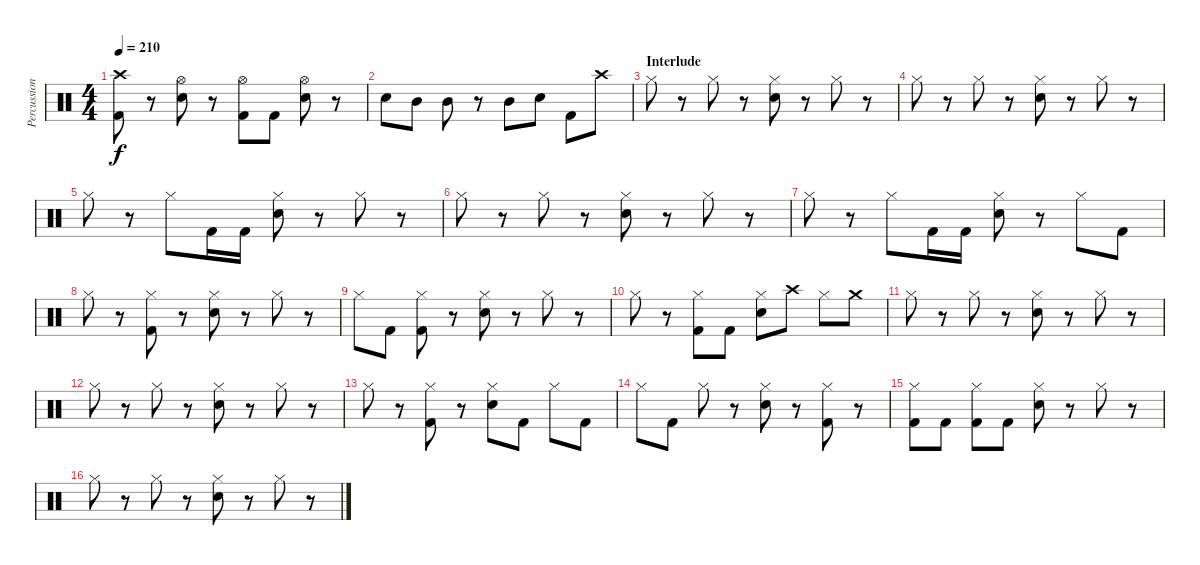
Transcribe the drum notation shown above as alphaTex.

\track ("Percussion" "Percussion") {instrument percussion}
\staff {score}
\articulation defaults
\ts (4 4)
\tempo 210
\clef neutral
\ks c
("Crash high (hit)" "Kick (hit) 2").8{dy f} r.8 ("Hi-Hat (open)" "Electric Snare (hit)").8 r.8 ("Hi-Hat (open)" "Kick (hit) 2").8 "Kick (hit) 2".8 ("Hi-Hat (open)" "Electric Snare (hit)").8 r.8 |
"Electric Snare (hit)".8 "Mid Tom (hit)".8 "Mid Tom (hit)".8 r.8 "Mid Tom (hit)".8 "Electric Snare (hit)".8 "Kick (hit) 2".8 "Crash high (hit)".8 |
\section ("" "Interlude")
"Hi-Hat (closed)".8 r.8 "Hi-Hat (closed)".8 r.8 ("Hi-Hat (closed)" "Electric Snare (hit)").8 r.8 "Hi-Hat (closed)".8 r.8 |
"Hi-Hat (closed)".8 r.8 "Hi-Hat (closed)".8 r.8 ("Hi-Hat (closed)" "Electric Snare (hit)").8 r.8 "Hi-Hat (closed)".8 r.8 |
"Hi-Hat (closed)".8 r.8 "Hi-Hat (closed)".8 "Kick (hit) 2".16 "Kick (hit) 2".16 ("Hi-Hat (closed)" "Electric Snare (hit)").8 r.8 "Hi-Hat (closed)".8 r.8 |
"Hi-Hat (closed)".8 r.8 "Hi-Hat (closed)".8 r.8 ("Hi-Hat (closed)" "Electric Snare (hit)").8 r.8 "Hi-Hat (closed)".8 r.8 |
"Hi-Hat (closed)".8 r.8 "Hi-Hat (closed)".8 "Kick (hit) 2".16 "Kick (hit) 2".16 ("Hi-Hat (closed)" "Electric Snare (hit)").8 r.8 "Hi-Hat (closed)".8 "Kick (hit) 2".8 |
"Hi-Hat (closed)".8 r.8 ("Hi-Hat (closed)" "Kick (hit) 2").8 r.8 ("Hi-Hat (closed)" "Electric Snare (hit)").8 r.8 "Hi-Hat (closed)".8 r.8 |
"Hi-Hat (closed)".8 "Kick (hit) 2".8 ("Hi-Hat (closed)" "Kick (hit) 2").8 r.8 ("Hi-Hat (closed)" "Electric Snare (hit)").8 r.8 "Hi-Hat (closed)".8 r.8 |
"Hi-Hat (closed)".8 r.8 ("Hi-Hat (closed)" "Kick (hit) 2").8 "Kick (hit) 2".8 ("Hi-Hat (closed)" "Electric Snare (hit)").8 "Crash high (hit)".8 "Hi-Hat (closed)".8 "Crash medium (hit)".8 |
"Hi-Hat (closed)".8 r.8 "Hi-Hat (closed)".8 r.8 ("Hi-Hat (closed)" "Electric Snare (hit)").8 r.8 "Hi-Hat (closed)".8 r.8 |
"Hi-Hat (closed)".8 r.8 "Hi-Hat (closed)".8 r.8 ("Hi-Hat (closed)" "Electric Snare (hit)").8 r.8 "Hi-Hat (closed)".8 r.8 |
"Hi-Hat (closed)".8 r.8 ("Hi-Hat (closed)" "Kick (hit) 2").8 r.8 ("Hi-Hat (closed)" "Electric Snare (hit)").8 "Kick (hit) 2".8 "Hi-Hat (closed)".8 "Kick (hit) 2".8 |
"Hi-Hat (closed)".8 "Kick (hit) 2".8 "Hi-Hat (closed)".8 r.8 ("Hi-Hat (closed)" "Electric Snare (hit)").8 r.8 ("Hi-Hat (closed)" "Kick (hit) 2").8 r.8 |
("Hi-Hat (closed)" "Kick (hit) 2").8 "Kick (hit) 2".8 ("Hi-Hat (closed)" "Kick (hit) 2").8 "Kick (hit) 2".8 ("Hi-Hat (closed)" "Electric Snare (hit)").8 r.8 "Hi-Hat (closed)".8 r.8 |
"Hi-Hat (closed)".8 r.8 "Hi-Hat (closed)".8 r.8 ("Hi-Hat (closed)" "Electric Snare (hit)").8 r.8 "Hi-Hat (closed)".8 r.8
